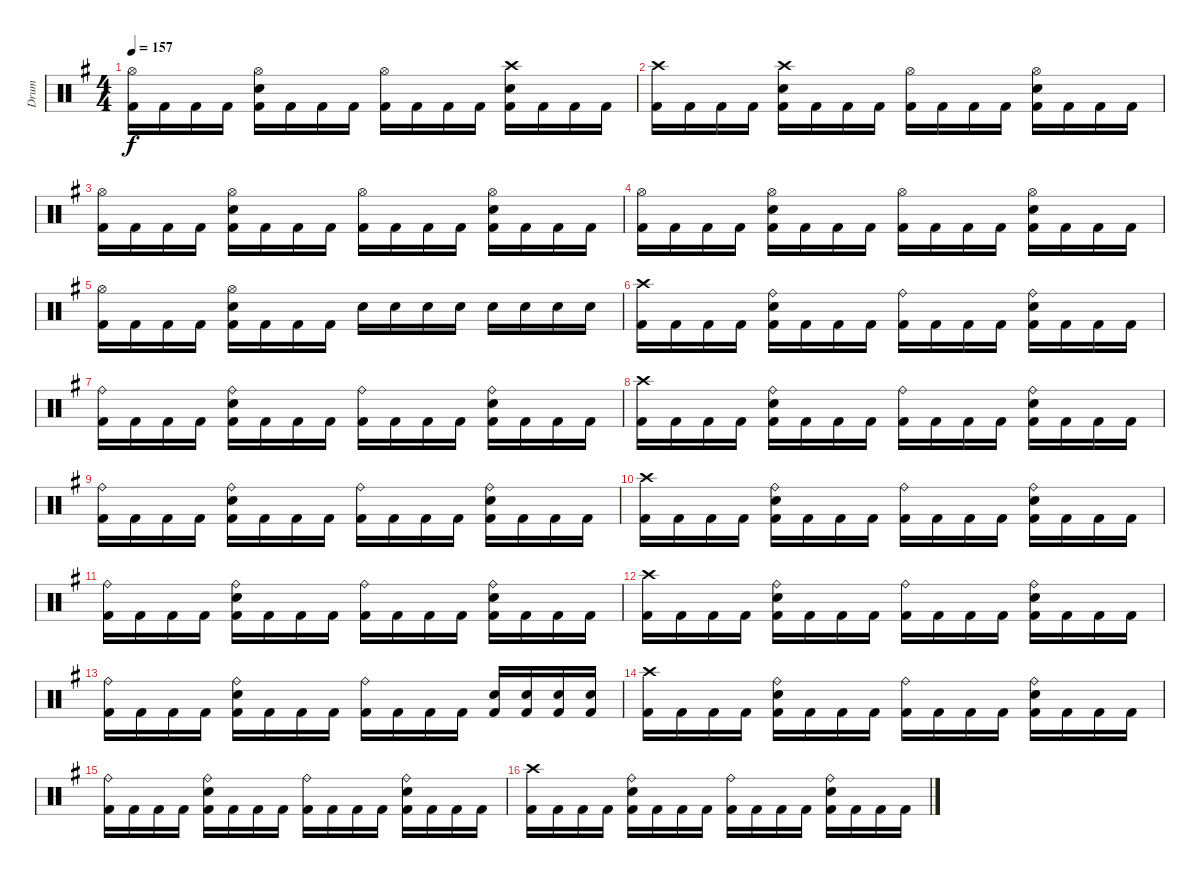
\track ("Drum" "Drum") {instrument percussion}
\staff {score}
\articulation defaults
\ts (4 4)
\tempo 157
\clef neutral
\ks eminor
("Hi-Hat (open)" "Kick (hit) 2").16{dy f} "Kick (hit) 2".16 "Kick (hit) 2".16 "Kick (hit) 2".16 ("Hi-Hat (open)" "Snare (hit) 2" "Kick (hit) 2").16 "Kick (hit) 2".16 "Kick (hit) 2".16 "Kick (hit) 2".16 ("Hi-Hat (open)" "Kick (hit) 2").16 "Kick (hit) 2".16 "Kick (hit) 2".16 "Kick (hit) 2".16 ("Crash high (hit)" "Snare (hit) 2" "Kick (hit) 2").16 "Kick (hit) 2".16 "Kick (hit) 2".16 "Kick (hit) 2".16 |
("Crash high (hit)" "Kick (hit) 2").16 "Kick (hit) 2".16 "Kick (hit) 2".16 "Kick (hit) 2".16 ("Crash high (hit)" "Snare (hit) 2" "Kick (hit) 2").16 "Kick (hit) 2".16 "Kick (hit) 2".16 "Kick (hit) 2".16 ("Hi-Hat (open)" "Kick (hit) 2").16 "Kick (hit) 2".16 "Kick (hit) 2".16 "Kick (hit) 2".16 ("Hi-Hat (open)" "Snare (hit) 2" "Kick (hit) 2").16 "Kick (hit) 2".16 "Kick (hit) 2".16 "Kick (hit) 2".16 |
("Hi-Hat (open)" "Kick (hit) 2").16 "Kick (hit) 2".16 "Kick (hit) 2".16 "Kick (hit) 2".16 ("Hi-Hat (open)" "Snare (hit) 2" "Kick (hit) 2").16 "Kick (hit) 2".16 "Kick (hit) 2".16 "Kick (hit) 2".16 ("Hi-Hat (open)" "Kick (hit) 2").16 "Kick (hit) 2".16 "Kick (hit) 2".16 "Kick (hit) 2".16 ("Hi-Hat (open)" "Snare (hit) 2" "Kick (hit) 2").16 "Kick (hit) 2".16 "Kick (hit) 2".16 "Kick (hit) 2".16 |
("Hi-Hat (open)" "Kick (hit) 2").16 "Kick (hit) 2".16 "Kick (hit) 2".16 "Kick (hit) 2".16 ("Hi-Hat (open)" "Snare (hit) 2" "Kick (hit) 2").16 "Kick (hit) 2".16 "Kick (hit) 2".16 "Kick (hit) 2".16 ("Hi-Hat (open)" "Kick (hit) 2").16 "Kick (hit) 2".16 "Kick (hit) 2".16 "Kick (hit) 2".16 ("Hi-Hat (open)" "Snare (hit) 2" "Kick (hit) 2").16 "Kick (hit) 2".16 "Kick (hit) 2".16 "Kick (hit) 2".16 |
("Hi-Hat (open)" "Kick (hit) 2").16 "Kick (hit) 2".16 "Kick (hit) 2".16 "Kick (hit) 2".16 ("Hi-Hat (open)" "Snare (hit) 2" "Kick (hit) 2").16 "Kick (hit) 2".16 "Kick (hit) 2".16 "Kick (hit) 2".16 "Snare (hit) 2".16 "Snare (hit) 2".16 "Snare (hit) 2".16 "Snare (hit) 2".16 "Snare (hit) 2".16 "Snare (hit) 2".16 "Snare (hit) 2".16 "Snare (hit) 2".16 |
("Crash high (hit)" "Kick (hit) 2").16 "Kick (hit) 2".16 "Kick (hit) 2".16 "Kick (hit) 2".16 ("Ride (bell)" "Snare (hit) 2" "Kick (hit) 2").16 "Kick (hit) 2".16 "Kick (hit) 2".16 "Kick (hit) 2".16 ("Ride (bell)" "Kick (hit) 2").16 "Kick (hit) 2".16 "Kick (hit) 2".16 "Kick (hit) 2".16 ("Ride (bell)" "Snare (hit) 2" "Kick (hit) 2").16 "Kick (hit) 2".16 "Kick (hit) 2".16 "Kick (hit) 2".16 |
("Ride (bell)" "Kick (hit) 2").16 "Kick (hit) 2".16 "Kick (hit) 2".16 "Kick (hit) 2".16 ("Ride (bell)" "Snare (hit) 2" "Kick (hit) 2").16 "Kick (hit) 2".16 "Kick (hit) 2".16 "Kick (hit) 2".16 ("Ride (bell)" "Kick (hit) 2").16 "Kick (hit) 2".16 "Kick (hit) 2".16 "Kick (hit) 2".16 ("Ride (bell)" "Snare (hit) 2" "Kick (hit) 2").16 "Kick (hit) 2".16 "Kick (hit) 2".16 "Kick (hit) 2".16 |
("Crash high (hit)" "Kick (hit) 2").16 "Kick (hit) 2".16 "Kick (hit) 2".16 "Kick (hit) 2".16 ("Ride (bell)" "Snare (hit) 2" "Kick (hit) 2").16 "Kick (hit) 2".16 "Kick (hit) 2".16 "Kick (hit) 2".16 ("Ride (bell)" "Kick (hit) 2").16 "Kick (hit) 2".16 "Kick (hit) 2".16 "Kick (hit) 2".16 ("Ride (bell)" "Snare (hit) 2" "Kick (hit) 2").16 "Kick (hit) 2".16 "Kick (hit) 2".16 "Kick (hit) 2".16 |
("Ride (bell)" "Kick (hit) 2").16 "Kick (hit) 2".16 "Kick (hit) 2".16 "Kick (hit) 2".16 ("Ride (bell)" "Snare (hit) 2" "Kick (hit) 2").16 "Kick (hit) 2".16 "Kick (hit) 2".16 "Kick (hit) 2".16 ("Ride (bell)" "Kick (hit) 2").16 "Kick (hit) 2".16 "Kick (hit) 2".16 "Kick (hit) 2".16 ("Ride (bell)" "Snare (hit) 2" "Kick (hit) 2").16 "Kick (hit) 2".16 "Kick (hit) 2".16 "Kick (hit) 2".16 |
("Crash high (hit)" "Kick (hit) 2").16 "Kick (hit) 2".16 "Kick (hit) 2".16 "Kick (hit) 2".16 ("Ride (bell)" "Snare (hit) 2" "Kick (hit) 2").16 "Kick (hit) 2".16 "Kick (hit) 2".16 "Kick (hit) 2".16 ("Ride (bell)" "Kick (hit) 2").16 "Kick (hit) 2".16 "Kick (hit) 2".16 "Kick (hit) 2".16 ("Ride (bell)" "Snare (hit) 2" "Kick (hit) 2").16 "Kick (hit) 2".16 "Kick (hit) 2".16 "Kick (hit) 2".16 |
("Ride (bell)" "Kick (hit) 2").16 "Kick (hit) 2".16 "Kick (hit) 2".16 "Kick (hit) 2".16 ("Ride (bell)" "Snare (hit) 2" "Kick (hit) 2").16 "Kick (hit) 2".16 "Kick (hit) 2".16 "Kick (hit) 2".16 ("Ride (bell)" "Kick (hit) 2").16 "Kick (hit) 2".16 "Kick (hit) 2".16 "Kick (hit) 2".16 ("Ride (bell)" "Snare (hit) 2" "Kick (hit) 2").16 "Kick (hit) 2".16 "Kick (hit) 2".16 "Kick (hit) 2".16 |
("Crash high (hit)" "Kick (hit) 2").16 "Kick (hit) 2".16 "Kick (hit) 2".16 "Kick (hit) 2".16 ("Ride (bell)" "Snare (hit) 2" "Kick (hit) 2").16 "Kick (hit) 2".16 "Kick (hit) 2".16 "Kick (hit) 2".16 ("Ride (bell)" "Kick (hit) 2").16 "Kick (hit) 2".16 "Kick (hit) 2".16 "Kick (hit) 2".16 ("Ride (bell)" "Snare (hit) 2" "Kick (hit) 2").16 "Kick (hit) 2".16 "Kick (hit) 2".16 "Kick (hit) 2".16 |
("Ride (bell)" "Kick (hit) 2").16 "Kick (hit) 2".16 "Kick (hit) 2".16 "Kick (hit) 2".16 ("Ride (bell)" "Snare (hit) 2" "Kick (hit) 2").16 "Kick (hit) 2".16 "Kick (hit) 2".16 "Kick (hit) 2".16 ("Ride (bell)" "Kick (hit) 2").16 "Kick (hit) 2".16 "Kick (hit) 2".16 "Kick (hit) 2".16 ("Snare (hit) 2" "Kick (hit) 2").16 ("Snare (hit) 2" "Kick (hit) 2").16 ("Snare (hit) 2" "Kick (hit) 2").16 ("Snare (hit) 2" "Kick (hit) 2").16 |
("Crash high (hit)" "Kick (hit) 2").16 "Kick (hit) 2".16 "Kick (hit) 2".16 "Kick (hit) 2".16 ("Ride (bell)" "Snare (hit) 2" "Kick (hit) 2").16 "Kick (hit) 2".16 "Kick (hit) 2".16 "Kick (hit) 2".16 ("Ride (bell)" "Kick (hit) 2").16 "Kick (hit) 2".16 "Kick (hit) 2".16 "Kick (hit) 2".16 ("Ride (bell)" "Snare (hit) 2" "Kick (hit) 2").16 "Kick (hit) 2".16 "Kick (hit) 2".16 "Kick (hit) 2".16 |
("Ride (bell)" "Kick (hit) 2").16 "Kick (hit) 2".16 "Kick (hit) 2".16 "Kick (hit) 2".16 ("Ride (bell)" "Snare (hit) 2" "Kick (hit) 2").16 "Kick (hit) 2".16 "Kick (hit) 2".16 "Kick (hit) 2".16 ("Ride (bell)" "Kick (hit) 2").16 "Kick (hit) 2".16 "Kick (hit) 2".16 "Kick (hit) 2".16 ("Ride (bell)" "Snare (hit) 2" "Kick (hit) 2").16 "Kick (hit) 2".16 "Kick (hit) 2".16 "Kick (hit) 2".16 |
("Crash high (hit)" "Kick (hit) 2").16 "Kick (hit) 2".16 "Kick (hit) 2".16 "Kick (hit) 2".16 ("Ride (bell)" "Snare (hit) 2" "Kick (hit) 2").16 "Kick (hit) 2".16 "Kick (hit) 2".16 "Kick (hit) 2".16 ("Ride (bell)" "Kick (hit) 2").16 "Kick (hit) 2".16 "Kick (hit) 2".16 "Kick (hit) 2".16 ("Ride (bell)" "Snare (hit) 2" "Kick (hit) 2").16 "Kick (hit) 2".16 "Kick (hit) 2".16 "Kick (hit) 2".16
